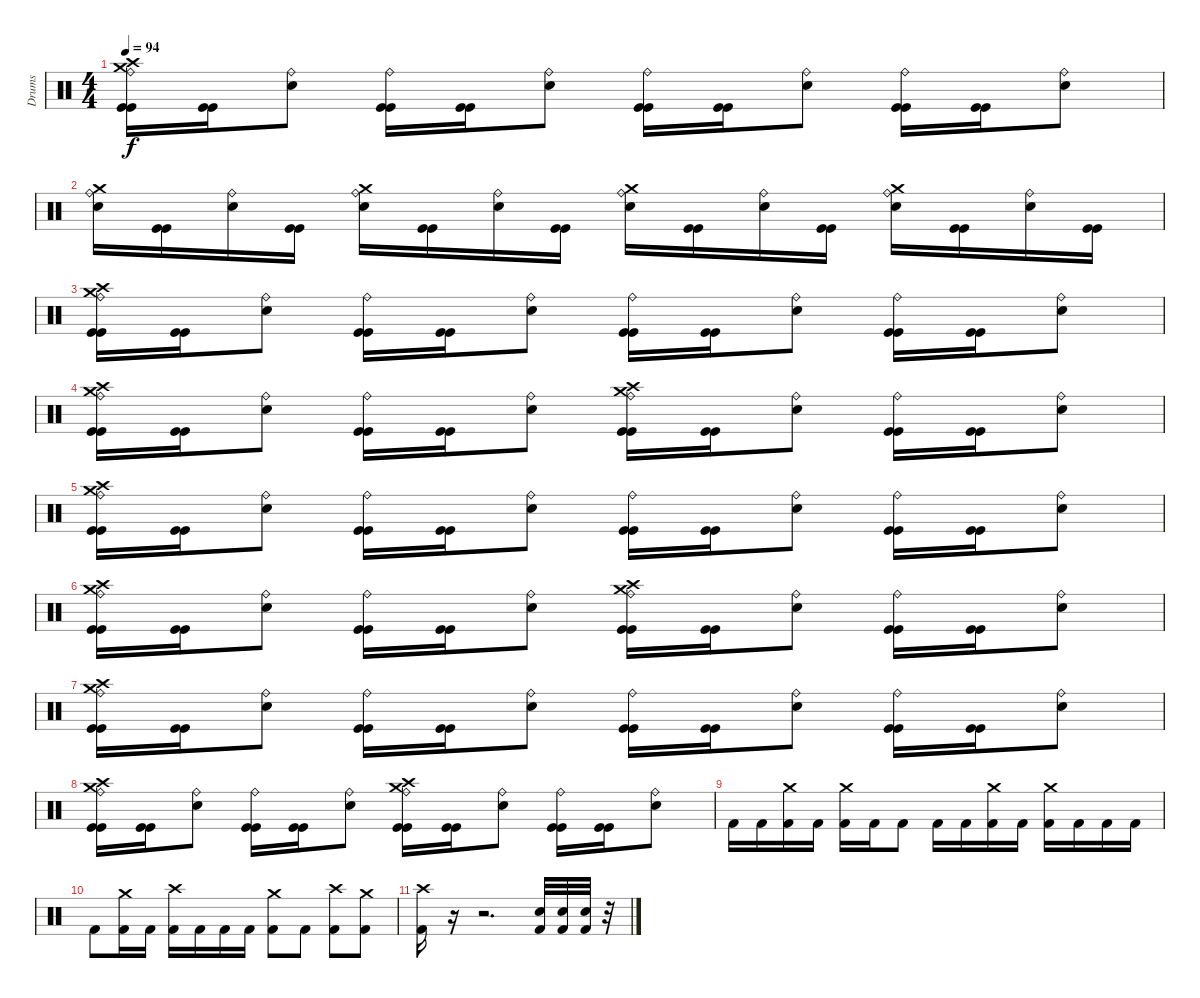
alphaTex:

\track ("Drums" "Drums") {instrument percussion}
\staff {score}
\articulation defaults
\ts (4 4)
\tempo 94
\clef neutral
\ks c
("Ride (bell)" "Crash high (hit)" "Crash medium (hit)" "Kick (hit)" "Kick (hit)").16{dy f} ("Kick (hit)" "Kick (hit)").16 ("Ride (bell)" "Snare (hit) 2").8 ("Ride (bell)" "Kick (hit)" "Kick (hit)").16 ("Kick (hit)" "Kick (hit)").16 ("Ride (bell)" "Snare (hit) 2").8 ("Ride (bell)" "Kick (hit)" "Kick (hit)").16 ("Kick (hit)" "Kick (hit)").16 ("Ride (bell)" "Snare (hit) 2").8 ("Ride (bell)" "Kick (hit)" "Kick (hit)").16 ("Kick (hit)" "Kick (hit)").16 ("Ride (bell)" "Snare (hit) 2").8 |
("Ride (bell)" "Snare (hit) 2" "Crash medium (hit)").16 ("Kick (hit)" "Kick (hit)").16 ("Ride (bell)" "Snare (hit) 2").16 ("Kick (hit)" "Kick (hit)").16 ("Ride (bell)" "Snare (hit) 2" "Crash medium (hit)").16 ("Kick (hit)" "Kick (hit)").16 ("Ride (bell)" "Snare (hit) 2").16 ("Kick (hit)" "Kick (hit)").16 ("Ride (bell)" "Snare (hit) 2" "Crash medium (hit)").16 ("Kick (hit)" "Kick (hit)").16 ("Ride (bell)" "Snare (hit) 2").16 ("Kick (hit)" "Kick (hit)").16 ("Ride (bell)" "Snare (hit) 2" "Crash medium (hit)").16 ("Kick (hit)" "Kick (hit)").16 ("Ride (bell)" "Snare (hit) 2").16 ("Kick (hit)" "Kick (hit)").16 |
("Ride (bell)" "Crash high (hit)" "Crash medium (hit)" "Kick (hit)" "Kick (hit)").16 ("Kick (hit)" "Kick (hit)").16 ("Ride (bell)" "Snare (hit) 2").8 ("Ride (bell)" "Kick (hit)" "Kick (hit)").16 ("Kick (hit)" "Kick (hit)").16 ("Ride (bell)" "Snare (hit) 2").8 ("Ride (bell)" "Kick (hit)" "Kick (hit)").16 ("Kick (hit)" "Kick (hit)").16 ("Ride (bell)" "Snare (hit) 2").8 ("Ride (bell)" "Kick (hit)" "Kick (hit)").16 ("Kick (hit)" "Kick (hit)").16 ("Ride (bell)" "Snare (hit) 2").8 |
("Ride (bell)" "Crash high (hit)" "Crash medium (hit)" "Kick (hit)" "Kick (hit)").16 ("Kick (hit)" "Kick (hit)").16 ("Ride (bell)" "Snare (hit) 2").8 ("Ride (bell)" "Kick (hit)" "Kick (hit)").16 ("Kick (hit)" "Kick (hit)").16 ("Ride (bell)" "Snare (hit) 2").8 ("Ride (bell)" "Crash high (hit)" "Crash medium (hit)" "Kick (hit)" "Kick (hit)").16 ("Kick (hit)" "Kick (hit)").16 ("Ride (bell)" "Snare (hit) 2").8 ("Ride (bell)" "Kick (hit)" "Kick (hit)").16 ("Kick (hit)" "Kick (hit)").16 ("Ride (bell)" "Snare (hit) 2").8 |
("Ride (bell)" "Crash high (hit)" "Crash medium (hit)" "Kick (hit)" "Kick (hit)").16 ("Kick (hit)" "Kick (hit)").16 ("Ride (bell)" "Snare (hit) 2").8 ("Ride (bell)" "Kick (hit)" "Kick (hit)").16 ("Kick (hit)" "Kick (hit)").16 ("Ride (bell)" "Snare (hit) 2").8 ("Ride (bell)" "Kick (hit)" "Kick (hit)").16 ("Kick (hit)" "Kick (hit)").16 ("Ride (bell)" "Snare (hit) 2").8 ("Ride (bell)" "Kick (hit)" "Kick (hit)").16 ("Kick (hit)" "Kick (hit)").16 ("Ride (bell)" "Snare (hit) 2").8 |
("Ride (bell)" "Crash high (hit)" "Crash medium (hit)" "Kick (hit)" "Kick (hit)").16 ("Kick (hit)" "Kick (hit)").16 ("Ride (bell)" "Snare (hit) 2").8 ("Ride (bell)" "Kick (hit)" "Kick (hit)").16 ("Kick (hit)" "Kick (hit)").16 ("Ride (bell)" "Snare (hit) 2").8 ("Ride (bell)" "Crash high (hit)" "Crash medium (hit)" "Kick (hit)" "Kick (hit)").16 ("Kick (hit)" "Kick (hit)").16 ("Ride (bell)" "Snare (hit) 2").8 ("Ride (bell)" "Kick (hit)" "Kick (hit)").16 ("Kick (hit)" "Kick (hit)").16 ("Ride (bell)" "Snare (hit) 2").8 |
("Ride (bell)" "Crash high (hit)" "Crash medium (hit)" "Kick (hit)" "Kick (hit)").16 ("Kick (hit)" "Kick (hit)").16 ("Ride (bell)" "Snare (hit) 2").8 ("Ride (bell)" "Kick (hit)" "Kick (hit)").16 ("Kick (hit)" "Kick (hit)").16 ("Ride (bell)" "Snare (hit) 2").8 ("Ride (bell)" "Kick (hit)" "Kick (hit)").16 ("Kick (hit)" "Kick (hit)").16 ("Ride (bell)" "Snare (hit) 2").8 ("Ride (bell)" "Kick (hit)" "Kick (hit)").16 ("Kick (hit)" "Kick (hit)").16 ("Ride (bell)" "Snare (hit) 2").8 |
("Ride (bell)" "Crash high (hit)" "Crash medium (hit)" "Kick (hit)" "Kick (hit)").16 ("Kick (hit)" "Kick (hit)").16 ("Ride (bell)" "Snare (hit) 2").8 ("Ride (bell)" "Kick (hit)" "Kick (hit)").16 ("Kick (hit)" "Kick (hit)").16 ("Ride (bell)" "Snare (hit) 2").8 ("Ride (bell)" "Crash high (hit)" "Crash medium (hit)" "Kick (hit)" "Kick (hit)").16 ("Kick (hit)" "Kick (hit)").16 ("Ride (bell)" "Snare (hit) 2").8 ("Ride (bell)" "Kick (hit)" "Kick (hit)").16 ("Kick (hit)" "Kick (hit)").16 ("Ride (bell)" "Snare (hit) 2").8 |
"Kick (hit) 2".16 "Kick (hit) 2".16 ("Crash medium (hit)" "Kick (hit) 2").16 "Kick (hit) 2".16 ("Crash medium (hit)" "Kick (hit) 2").16 "Kick (hit) 2".16 "Kick (hit) 2".8 "Kick (hit) 2".16 "Kick (hit) 2".16 ("Crash medium (hit)" "Kick (hit) 2").16 "Kick (hit) 2".16 ("Crash medium (hit)" "Kick (hit) 2").16 "Kick (hit) 2".16 "Kick (hit) 2".16 "Kick (hit) 2".16 |
"Kick (hit) 2".8 ("Crash medium (hit)" "Kick (hit) 2").16 "Kick (hit) 2".16 ("Crash high (hit)" "Kick (hit) 2").16 "Kick (hit) 2".16 "Kick (hit) 2".16 "Kick (hit) 2".16 ("Crash medium (hit)" "Kick (hit) 2").8 "Kick (hit) 2".8 ("Crash high (hit)" "Kick (hit) 2").8 ("Crash medium (hit)" "Kick (hit) 2").8 |
("Crash high (hit)" "Kick (hit) 2").16 r.16 r.2{d} ("Snare (hit) 2" "Kick (hit) 2").32 ("Snare (hit) 2" "Kick (hit) 2").32 ("Snare (hit) 2" "Kick (hit) 2").32 r.32
